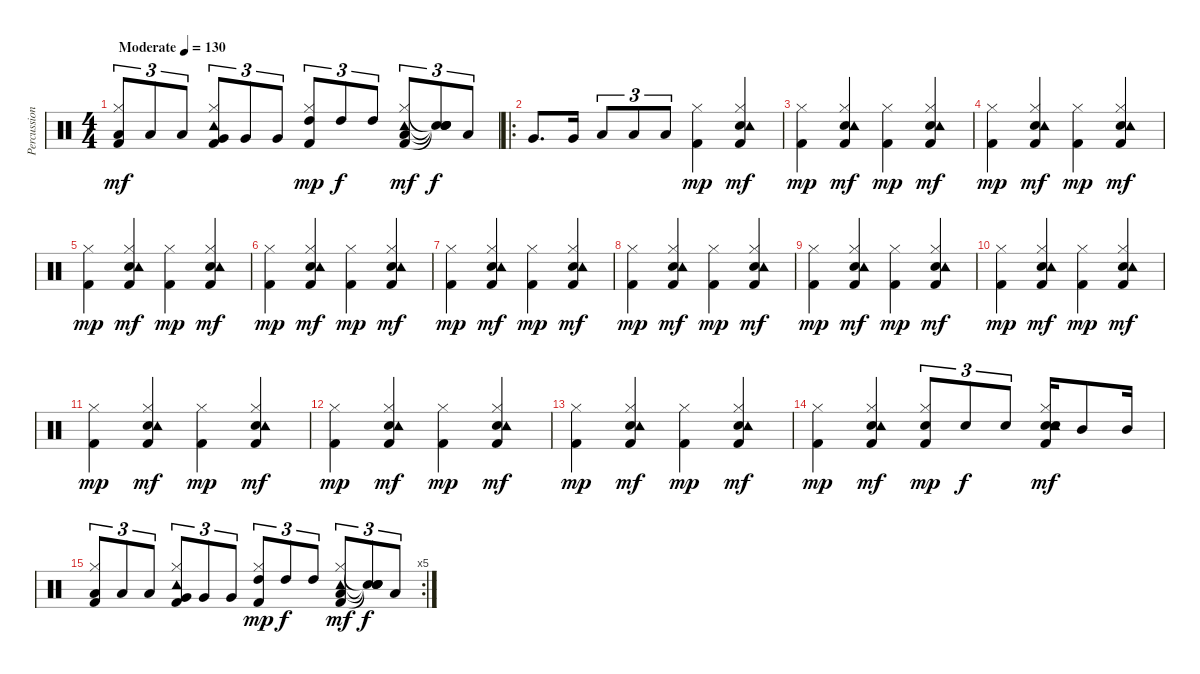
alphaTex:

\track ("Percussions" "Percussion") {instrument percussion}
\staff {score}
\articulation defaults
\ts (4 4)
\tempo (130 "Moderate")
\clef neutral
\ks c
("Kick (hit) 2" "Hi-Hat (closed)" "Low Tom (hit)").8{tu (3 2) dy mf} "Low Tom (hit)".8{tu (3 2)} "Low Tom (hit)".8{tu (3 2)} ("Kick (hit) 2" "Hi-Hat (closed)" "Very Low Tom (hit)" "Tambourine (hit)").8{tu (3 2)} "Very Low Tom (hit)".8{tu (3 2)} "Very Low Tom (hit)".8{tu (3 2)} ("Kick (hit) 2" "Hi-Hat (closed)" "High Tom (hit)").8{tu (3 2) dy mp} "High Tom (hit)".8{tu (3 2) dy f} "High Tom (hit)".8{tu (3 2)} ("Kick (hit) 2" "Hi-Hat (closed)" "Low Tom (hit)" "Tambourine (hit)").8{tu (3 2) dy mf} ("Snare (hit)"{t} "Snare (hit)"{t} "Snare (hit)"{t} "Snare (hit)"{t}).8{tu (3 2) dy f} "Low Tom (hit)".8{tu (3 2)} |
\ro "Very Low Tom (hit)".8{d} "Very Low Tom (hit)".16 "Low Floor Tom (hit)".8{tu (3 2)} "Low Floor Tom (hit)".8{tu (3 2)} "Low Floor Tom (hit)".8{tu (3 2)}
("Kick (hit) 2" "Hi-Hat (closed)").4{dy mp} ("Kick (hit) 2" "Snare (hit) 2" "Hi-Hat (closed)" "Tambourine (hit)").4{dy mf} |
("Kick (hit) 2" "Hi-Hat (closed)").4{dy mp} ("Kick (hit) 2" "Snare (hit) 2" "Hi-Hat (closed)" "Tambourine (hit)").4{dy mf} ("Kick (hit) 2" "Hi-Hat (closed)").4{dy mp} ("Kick (hit) 2" "Snare (hit) 2" "Hi-Hat (closed)" "Tambourine (hit)").4{dy mf} |
("Kick (hit) 2" "Hi-Hat (closed)").4{dy mp} ("Kick (hit) 2" "Snare (hit) 2" "Hi-Hat (closed)" "Tambourine (hit)").4{dy mf} ("Kick (hit) 2" "Hi-Hat (closed)").4{dy mp} ("Kick (hit) 2" "Snare (hit) 2" "Hi-Hat (closed)" "Tambourine (hit)").4{dy mf} |
("Kick (hit) 2" "Hi-Hat (closed)").4{dy mp} ("Kick (hit) 2" "Snare (hit) 2" "Hi-Hat (closed)" "Tambourine (hit)").4{dy mf} ("Kick (hit) 2" "Hi-Hat (closed)").4{dy mp} ("Kick (hit) 2" "Snare (hit) 2" "Hi-Hat (closed)" "Tambourine (hit)").4{dy mf} |
("Kick (hit) 2" "Hi-Hat (closed)").4{dy mp} ("Kick (hit) 2" "Snare (hit) 2" "Hi-Hat (closed)" "Tambourine (hit)").4{dy mf} ("Kick (hit) 2" "Hi-Hat (closed)").4{dy mp} ("Kick (hit) 2" "Snare (hit) 2" "Hi-Hat (closed)" "Tambourine (hit)").4{dy mf} |
("Kick (hit) 2" "Hi-Hat (closed)").4{dy mp} ("Kick (hit) 2" "Snare (hit) 2" "Hi-Hat (closed)" "Tambourine (hit)").4{dy mf} ("Kick (hit) 2" "Hi-Hat (closed)").4{dy mp} ("Kick (hit) 2" "Snare (hit) 2" "Hi-Hat (closed)" "Tambourine (hit)").4{dy mf} |
("Kick (hit) 2" "Hi-Hat (closed)").4{dy mp} ("Kick (hit) 2" "Snare (hit) 2" "Hi-Hat (closed)" "Tambourine (hit)").4{dy mf} ("Kick (hit) 2" "Hi-Hat (closed)").4{dy mp} ("Kick (hit) 2" "Snare (hit) 2" "Hi-Hat (closed)" "Tambourine (hit)").4{dy mf} |
("Kick (hit) 2" "Hi-Hat (closed)").4{dy mp} ("Kick (hit) 2" "Snare (hit) 2" "Hi-Hat (closed)" "Tambourine (hit)").4{dy mf} ("Kick (hit) 2" "Hi-Hat (closed)").4{dy mp} ("Kick (hit) 2" "Snare (hit) 2" "Hi-Hat (closed)" "Tambourine (hit)").4{dy mf} |
("Kick (hit) 2" "Hi-Hat (closed)").4{dy mp} ("Kick (hit) 2" "Snare (hit) 2" "Hi-Hat (closed)" "Tambourine (hit)").4{dy mf} ("Kick (hit) 2" "Hi-Hat (closed)").4{dy mp} ("Kick (hit) 2" "Snare (hit) 2" "Hi-Hat (closed)" "Tambourine (hit)").4{dy mf} |
("Kick (hit) 2" "Hi-Hat (closed)").4{dy mp} ("Kick (hit) 2" "Snare (hit) 2" "Hi-Hat (closed)" "Tambourine (hit)").4{dy mf} ("Kick (hit) 2" "Hi-Hat (closed)").4{dy mp} ("Kick (hit) 2" "Snare (hit) 2" "Hi-Hat (closed)" "Tambourine (hit)").4{dy mf} |
("Kick (hit) 2" "Hi-Hat (closed)").4{dy mp} ("Kick (hit) 2" "Snare (hit) 2" "Hi-Hat (closed)" "Tambourine (hit)").4{dy mf} ("Kick (hit) 2" "Hi-Hat (closed)").4{dy mp} ("Kick (hit) 2" "Snare (hit) 2" "Hi-Hat (closed)" "Tambourine (hit)").4{dy mf} |
("Kick (hit) 2" "Hi-Hat (closed)").4{dy mp} ("Kick (hit) 2" "Snare (hit) 2" "Hi-Hat (closed)" "Tambourine (hit)").4{dy mf} ("Kick (hit) 2" "Hi-Hat (closed)").4{dy mp} ("Kick (hit) 2" "Snare (hit) 2" "Hi-Hat (closed)" "Tambourine (hit)").4{dy mf} |
("Kick (hit) 2" "Hi-Hat (closed)").4{dy mp} ("Kick (hit) 2" "Snare (hit) 2" "Hi-Hat (closed)" "Tambourine (hit)").4{dy mf} ("Kick (hit) 2" "Snare (hit) 2" "Hi-Hat (closed)").8{tu (3 2) dy mp} "Snare (hit) 2".8{tu (3 2) dy f} "Snare (hit) 2".8{tu (3 2)} ("Snare (hit) 2" "Kick (hit) 2" "Snare (hit) 2" "Hi-Hat (closed)" "Tambourine (hit)").16{dy mf} "Mid Tom (hit)".8 "Mid Tom (hit)".16 |
\rc 5
("Kick (hit) 2" "Hi-Hat (closed)" "Low Tom (hit)").8{tu (3 2)} "Low Tom (hit)".8{tu (3 2)} "Low Tom (hit)".8{tu (3 2)} ("Kick (hit) 2" "Hi-Hat (closed)" "Very Low Tom (hit)" "Tambourine (hit)").8{tu (3 2)} "Very Low Tom (hit)".8{tu (3 2)} "Very Low Tom (hit)".8{tu (3 2)} ("Kick (hit) 2" "Hi-Hat (closed)" "High Tom (hit)").8{tu (3 2) dy mp} "High Tom (hit)".8{tu (3 2) dy f} "High Tom (hit)".8{tu (3 2)} ("Kick (hit) 2" "Hi-Hat (closed)" "Low Tom (hit)" "Tambourine (hit)").8{tu (3 2) dy mf} ("Snare (hit)"{t} "Snare (hit)"{t} "Snare (hit)"{t} "Snare (hit)"{t}).8{tu (3 2) dy f} "Low Tom (hit)".8{tu (3 2)}
